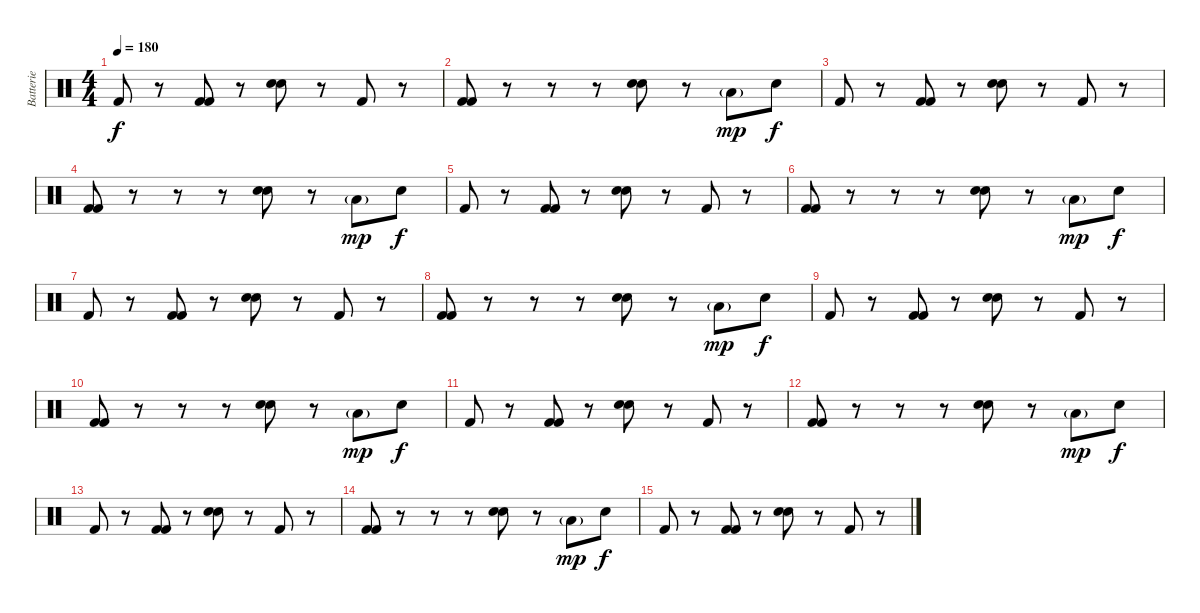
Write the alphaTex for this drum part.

\track ("Batterie" "Batterie") {instrument percussion}
\staff {score}
\articulation defaults
\ts (4 4)
\tempo 180
\clef neutral
\ks c "Kick (hit) 2".8{dy f}
r.8 ("Kick (hit) 2" "Kick (hit) 2").8 r.8 ("Electric Snare (hit)" "Snare (hit) 2").8 r.8 "Kick (hit) 2".8 r.8 |
("Kick (hit) 2" "Kick (hit) 2").8 r.8 r.8 r.8 ("Electric Snare (hit)" "Snare (hit) 2").8 r.8 "Low Tom (hit)"{g}.8{dy mp} "Electric Snare (hit)".8{dy f} |
"Kick (hit) 2".8 r.8 ("Kick (hit) 2" "Kick (hit) 2").8 r.8 ("Electric Snare (hit)" "Snare (hit) 2").8 r.8 "Kick (hit) 2".8 r.8 |
("Kick (hit) 2" "Kick (hit) 2").8 r.8 r.8 r.8 ("Electric Snare (hit)" "Snare (hit) 2").8 r.8 "Low Tom (hit)"{g}.8{dy mp} "Electric Snare (hit)".8{dy f} |
"Kick (hit) 2".8 r.8 ("Kick (hit) 2" "Kick (hit) 2").8 r.8 ("Electric Snare (hit)" "Snare (hit) 2").8 r.8 "Kick (hit) 2".8 r.8 |
("Kick (hit) 2" "Kick (hit) 2").8 r.8 r.8 r.8 ("Electric Snare (hit)" "Snare (hit) 2").8 r.8 "Low Tom (hit)"{g}.8{dy mp} "Electric Snare (hit)".8{dy f} |
"Kick (hit) 2".8 r.8 ("Kick (hit) 2" "Kick (hit) 2").8 r.8 ("Electric Snare (hit)" "Snare (hit) 2").8 r.8 "Kick (hit) 2".8 r.8 |
("Kick (hit) 2" "Kick (hit) 2").8 r.8 r.8 r.8 ("Electric Snare (hit)" "Snare (hit) 2").8 r.8 "Low Tom (hit)"{g}.8{dy mp} "Electric Snare (hit)".8{dy f} |
"Kick (hit) 2".8 r.8 ("Kick (hit) 2" "Kick (hit) 2").8 r.8 ("Electric Snare (hit)" "Snare (hit) 2").8 r.8 "Kick (hit) 2".8 r.8 |
("Kick (hit) 2" "Kick (hit) 2").8 r.8 r.8 r.8 ("Electric Snare (hit)" "Snare (hit) 2").8 r.8 "Low Tom (hit)"{g}.8{dy mp} "Electric Snare (hit)".8{dy f} |
"Kick (hit) 2".8 r.8 ("Kick (hit) 2" "Kick (hit) 2").8 r.8 ("Electric Snare (hit)" "Snare (hit) 2").8 r.8 "Kick (hit) 2".8 r.8 |
("Kick (hit) 2" "Kick (hit) 2").8 r.8 r.8 r.8 ("Electric Snare (hit)" "Snare (hit) 2").8 r.8 "Low Tom (hit)"{g}.8{dy mp} "Electric Snare (hit)".8{dy f} |
"Kick (hit) 2".8 r.8 ("Kick (hit) 2" "Kick (hit) 2").8 r.8 ("Electric Snare (hit)" "Snare (hit) 2").8 r.8 "Kick (hit) 2".8 r.8 |
("Kick (hit) 2" "Kick (hit) 2").8 r.8 r.8 r.8 ("Electric Snare (hit)" "Snare (hit) 2").8 r.8 "Low Tom (hit)"{g}.8{dy mp} "Electric Snare (hit)".8{dy f} |
"Kick (hit) 2".8 r.8 ("Kick (hit) 2" "Kick (hit) 2").8 r.8 ("Electric Snare (hit)" "Snare (hit) 2").8 r.8 "Kick (hit) 2".8 r.8
